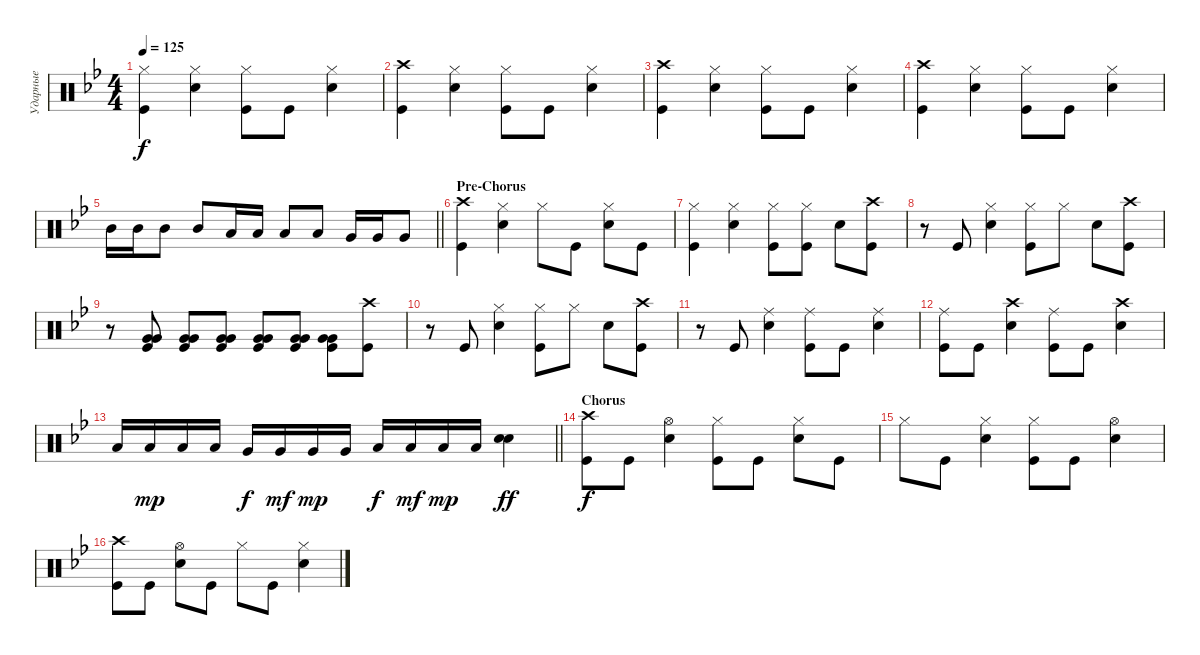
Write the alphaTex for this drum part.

\track ("Ударные" "Ударные") {instrument percussion}
\staff {score}
\articulation defaults
\ts (4 4)
\tempo 125
\clef neutral
\ks gminor
("Kick (hit)" "Hi-Hat (closed)").4{dy f} ("Hi-Hat (closed)" "Snare (hit) 2").4 ("Hi-Hat (closed)" "Kick (hit)").8 "Kick (hit)".8 ("Hi-Hat (closed)" "Snare (hit) 2").4 |
("Kick (hit)" "Crash high (hit)").4 ("Hi-Hat (closed)" "Snare (hit) 2").4 ("Hi-Hat (closed)" "Kick (hit)").8 "Kick (hit)".8 ("Hi-Hat (closed)" "Snare (hit) 2").4 |
("Kick (hit)" "Crash high (hit)").4 ("Hi-Hat (closed)" "Snare (hit) 2").4 ("Hi-Hat (closed)" "Kick (hit)").8 "Kick (hit)".8 ("Hi-Hat (closed)" "Snare (hit) 2").4 |
("Kick (hit)" "Crash high (hit)").4 ("Hi-Hat (closed)" "Snare (hit) 2").4 ("Hi-Hat (closed)" "Kick (hit)").8 "Kick (hit)".8 ("Hi-Hat (closed)" "Snare (hit) 2").4 |
\barLineRight lightlight "Mid Tom (hit)".16 "Mid Tom (hit)".16 "Mid Tom (hit)".8 "Mid Tom (hit)".8 "Low Tom (hit)".16 "Low Tom (hit)".16 "Low Tom (hit)".8 "Low Tom (hit)".8 "Very Low Tom (hit)".16 "Very Low Tom (hit)".16 "Very Low Tom (hit)".8
|
\section ("" "Pre-Chorus")
("Kick (hit)" "Crash high (hit)").4 ("Snare (hit) 2" "Hi-Hat (closed)").4 "Hi-Hat (closed)".8 "Kick (hit)".8 ("Snare (hit) 2" "Hi-Hat (closed)").8 "Kick (hit)".8 |
("Kick (hit)" "Hi-Hat (closed)").4 ("Hi-Hat (closed)" "Snare (hit) 2").4 ("Hi-Hat (closed)" "Kick (hit)").8 ("Kick (hit)" "Hi-Hat (closed)").8 "Snare (hit) 2".8 ("Kick (hit)" "Crash high (hit)").8 |
r.8 "Kick (hit)".8 ("Hi-Hat (closed)" "Snare (hit) 2").4 ("Hi-Hat (closed)" "Kick (hit)").8 "Hi-Hat (closed)".8 "Snare (hit) 2".8 ("Kick (hit)" "Crash high (hit)").8 |
r.8 ("Kick (hit)" "Very Low Tom (hit)" "Very Low Tom (hit)").8{bd 60} ("Kick (hit)" "Very Low Tom (hit)" "Very Low Tom (hit)").8{bd 60} ("Kick (hit)" "Very Low Tom (hit)" "Very Low Tom (hit)").8{bd 60} ("Kick (hit)" "Very Low Tom (hit)" "Very Low Tom (hit)").8{bd 60} ("Kick (hit)" "Very Low Tom (hit)" "Very Low Tom (hit)").8{bd 60} ("Kick (hit)" "Very Low Tom (hit)" "Very Low Tom (hit)").8{bd 60} ("Kick (hit)" "Crash high (hit)").8 |
r.8 "Kick (hit)".8 ("Hi-Hat (closed)" "Snare (hit) 2").4 ("Hi-Hat (closed)" "Kick (hit)").8 "Hi-Hat (closed)".8 "Snare (hit) 2".8 ("Kick (hit)" "Crash high (hit)").8 |
r.8 "Kick (hit)".8 ("Ride (middle)" "Snare (hit) 2").4 ("Ride (middle)" "Kick (hit)").8 "Kick (hit)".8 ("Ride (middle)" "Snare (hit) 2").4 |
("Kick (hit)" "Ride (middle)").8 "Kick (hit)".8 ("Snare (hit) 2" "Crash high (hit)").4 ("Kick (hit)" "Ride (middle)").8 "Kick (hit)".8 ("Snare (hit) 2" "Crash high (hit)").4 |
\barLineRight lightlight "Low Tom (hit)".16 "Low Tom (hit)".16{dy mp} "Low Tom (hit)".16 "Low Tom (hit)".16 "Very Low Tom (hit)".16{dy f} "Very Low Tom (hit)".16{dy mf} "Very Low Tom (hit)".16{dy mp} "Very Low Tom (hit)".16 "Low Floor Tom (hit)".16{dy f} "Low Floor Tom (hit)".16{dy mf} "Low Floor Tom (hit)".16{dy mp} "Low Floor Tom (hit)".16
("Snare (hit) 2" "Snare (hit) 2").4{bd 240 dy ff} |
\section ("" "Chorus")
("Kick (hit)" "Crash high (hit)").8{dy f} "Kick (hit)".8 ("Snare (hit) 2" "Hi-Hat (open)").4 ("Kick (hit)" "Hi-Hat (closed)").8 "Kick (hit)".8 ("Snare (hit) 2" "Hi-Hat (closed)").8 "Kick (hit)".8 |
"Hi-Hat (closed)".8 "Kick (hit)".8 ("Snare (hit) 2" "Hi-Hat (closed)").4 ("Kick (hit)" "Hi-Hat (closed)").8 "Kick (hit)".8 ("Snare (hit) 2" "Hi-Hat (open)").4 |
("Kick (hit)" "Crash high (hit)").8 "Kick (hit)".8 ("Snare (hit) 2" "Hi-Hat (open)").8 "Kick (hit)".8 "Hi-Hat (closed)".8 "Kick (hit)".8 ("Snare (hit) 2" "Hi-Hat (closed)").4
